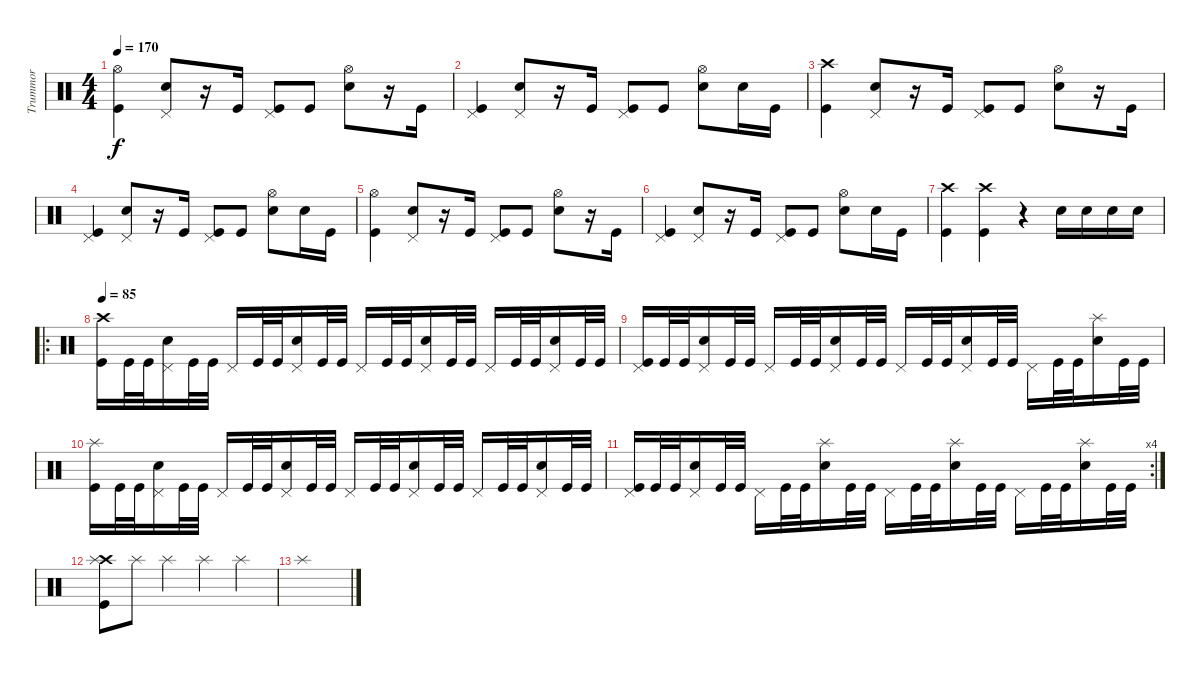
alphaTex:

\track ("Trummor" "Trummor") {instrument percussion}
\staff {score}
\articulation defaults
\ts (4 4)
\tempo 170
\clef neutral
\ks c
("Hi-Hat (open)" "Kick (hit)").4{dy f} ("Pedal Hi-Hat (hit)" "Snare (hit) 2").8 r.16 "Kick (hit)".16 ("Pedal Hi-Hat (hit)" "Kick (hit)").8 "Kick (hit)".8 ("Hi-Hat (open)" "Snare (hit) 2").8 r.16 "Kick (hit)".16 |
("Pedal Hi-Hat (hit)" "Kick (hit)").4 ("Pedal Hi-Hat (hit)" "Snare (hit) 2").8 r.16 "Kick (hit)".16 ("Pedal Hi-Hat (hit)" "Kick (hit)").8 "Kick (hit)".8 ("Hi-Hat (open)" "Snare (hit) 2").8 "Snare (hit) 2".16 "Kick (hit)".16 |
("Crash high (hit)" "Kick (hit)").4 ("Pedal Hi-Hat (hit)" "Snare (hit) 2").8 r.16 "Kick (hit)".16 ("Pedal Hi-Hat (hit)" "Kick (hit)").8 "Kick (hit)".8 ("Hi-Hat (open)" "Snare (hit) 2").8 r.16 "Kick (hit)".16 |
("Pedal Hi-Hat (hit)" "Kick (hit)").4 ("Pedal Hi-Hat (hit)" "Snare (hit) 2").8 r.16 "Kick (hit)".16 ("Pedal Hi-Hat (hit)" "Kick (hit)").8 "Kick (hit)".8 ("Hi-Hat (open)" "Snare (hit) 2").8 "Snare (hit) 2".16 "Kick (hit)".16 |
("Hi-Hat (open)" "Kick (hit)").4 ("Pedal Hi-Hat (hit)" "Snare (hit) 2").8 r.16 "Kick (hit)".16 ("Pedal Hi-Hat (hit)" "Kick (hit)").8 "Kick (hit)".8 ("Hi-Hat (open)" "Snare (hit) 2").8 r.16 "Kick (hit)".16 |
("Pedal Hi-Hat (hit)" "Kick (hit)").4 ("Pedal Hi-Hat (hit)" "Snare (hit) 2").8 r.16 "Kick (hit)".16 ("Pedal Hi-Hat (hit)" "Kick (hit)").8 "Kick (hit)".8 ("Hi-Hat (open)" "Snare (hit) 2").8 "Snare (hit) 2".16 "Kick (hit)".16 |
("Crash high (hit)" "Kick (hit)").4 ("Crash high (hit)" "Kick (hit)").4 r.4 "Snare (hit) 2".16 "Snare (hit) 2".16 "Snare (hit) 2".16 "Snare (hit) 2".16 |
\ro
\tempo 85
("Crash high (hit)" "Kick (hit)").16 "Kick (hit)".32 "Kick (hit)".32 ("Pedal Hi-Hat (hit)" "Snare (hit) 2").16 "Kick (hit)".32 "Kick (hit)".32 "Pedal Hi-Hat (hit)".16 "Kick (hit)".32 "Kick (hit)".32 ("Pedal Hi-Hat (hit)" "Snare (hit) 2").16 "Kick (hit)".32 "Kick (hit)".32 "Pedal Hi-Hat (hit)".16 "Kick (hit)".32 "Kick (hit)".32 ("Pedal Hi-Hat (hit)" "Snare (hit) 2").16 "Kick (hit)".32 "Kick (hit)".32 "Pedal Hi-Hat (hit)".16 "Kick (hit)".32 "Kick (hit)".32 ("Pedal Hi-Hat (hit)" "Snare (hit) 2").16 "Kick (hit)".32 "Kick (hit)".32 |
("Pedal Hi-Hat (hit)" "Kick (hit)").16 "Kick (hit)".32 "Kick (hit)".32 ("Pedal Hi-Hat (hit)" "Snare (hit) 2").16 "Kick (hit)".32 "Kick (hit)".32 "Pedal Hi-Hat (hit)".16 "Kick (hit)".32 "Kick (hit)".32 ("Pedal Hi-Hat (hit)" "Snare (hit) 2").16 "Kick (hit)".32 "Kick (hit)".32 "Pedal Hi-Hat (hit)".16 "Kick (hit)".32 "Kick (hit)".32 ("Pedal Hi-Hat (hit)" "Snare (hit) 2").16 "Kick (hit)".32 "Kick (hit)".32 "Pedal Hi-Hat (hit)".16 "Kick (hit)".32 "Kick (hit)".32 ("Splash (hit)" "Snare (hit) 2").16 "Kick (hit)".32 "Kick (hit)".32 |
("Splash (hit)" "Kick (hit)").16 "Kick (hit)".32 "Kick (hit)".32 ("Pedal Hi-Hat (hit)" "Snare (hit) 2").16 "Kick (hit)".32 "Kick (hit)".32 "Pedal Hi-Hat (hit)".16 "Kick (hit)".32 "Kick (hit)".32 ("Pedal Hi-Hat (hit)" "Snare (hit) 2").16 "Kick (hit)".32 "Kick (hit)".32 "Pedal Hi-Hat (hit)".16 "Kick (hit)".32 "Kick (hit)".32 ("Pedal Hi-Hat (hit)" "Snare (hit) 2").16 "Kick (hit)".32 "Kick (hit)".32 "Pedal Hi-Hat (hit)".16 "Kick (hit)".32 "Kick (hit)".32 ("Pedal Hi-Hat (hit)" "Snare (hit) 2").16 "Kick (hit)".32 "Kick (hit)".32 |
\rc 4
("Pedal Hi-Hat (hit)" "Kick (hit)").16 "Kick (hit)".32 "Kick (hit)".32 ("Pedal Hi-Hat (hit)" "Snare (hit) 2").16 "Kick (hit)".32 "Kick (hit)".32 "Pedal Hi-Hat (hit)".16 "Kick (hit)".32 "Kick (hit)".32 ("Splash (hit)" "Snare (hit) 2").16 "Kick (hit)".32 "Kick (hit)".32 "Pedal Hi-Hat (hit)".16 "Kick (hit)".32 "Kick (hit)".32 ("Splash (hit)" "Snare (hit) 2").16 "Kick (hit)".32 "Kick (hit)".32 "Pedal Hi-Hat (hit)".16 "Kick (hit)".32 "Kick (hit)".32 ("Splash (hit)" "Snare (hit) 2").16 "Kick (hit)".32 "Kick (hit)".32 |
("Crash high (hit)" "Splash (hit)" "Kick (hit)").8 "Splash (hit)".8 "Splash (hit)".4 "Splash (hit)".4 "Splash (hit)".4 |
"Splash (hit)".1
